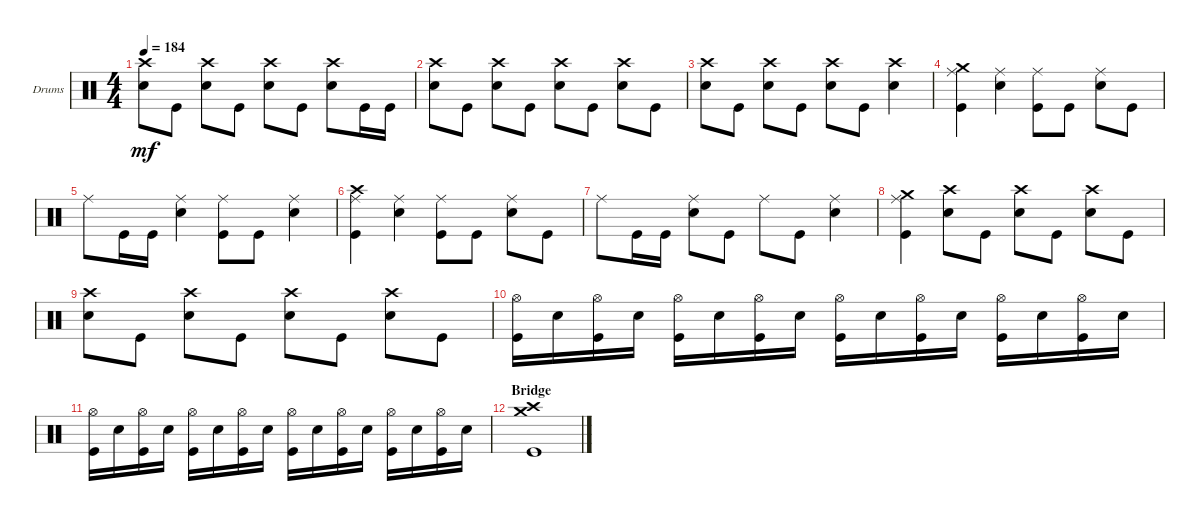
\defaultSystemsLayout 4
\bracketExtendMode groupsimilarinstruments
\firstSystemTrackNameOrientation horizontal
\otherSystemsTrackNameOrientation horizontal
\track ("Drums (Phoenix)" "Drums") {instrument percussion}
\staff {score}
\articulation defaults
\ts (4 4)
\tempo 184
\clef neutral
\ks c
("Snare (hit) 2" "Crash high (hit)").8{dy mf} "Kick (hit)".8 ("Snare (hit) 2" "Crash high (hit)").8 "Kick (hit)".8 ("Snare (hit) 2" "Crash high (hit)").8 "Kick (hit)".8 ("Snare (hit) 2" "Crash high (hit)").8 "Kick (hit)".16 "Kick (hit)".16 |
("Snare (hit) 2" "Crash high (hit)").8 "Kick (hit)".8 ("Snare (hit) 2" "Crash high (hit)").8 "Kick (hit)".8 ("Snare (hit) 2" "Crash high (hit)").8 "Kick (hit)".8 ("Snare (hit) 2" "Crash high (hit)").8 "Kick (hit)".8 |
("Snare (hit) 2" "Crash high (hit)").8 "Kick (hit)".8 ("Snare (hit) 2" "Crash high (hit)").8 "Kick (hit)".8 ("Snare (hit) 2" "Crash high (hit)").8 "Kick (hit)".8 ("Snare (hit) 2" "Crash high (hit)").4 |
("Kick (hit)" "Ride (middle)" "Crash medium (hit)").4 ("Snare (hit) 2" "Ride (middle)").4 ("Kick (hit)" "Ride (middle)").8 "Kick (hit)".8 ("Snare (hit) 2" "Ride (middle)").8 "Kick (hit)".8 |
"Ride (middle)".8 "Kick (hit)".16 "Kick (hit)".16 ("Snare (hit) 2" "Ride (middle)").4 ("Kick (hit)" "Ride (middle)").8 "Kick (hit)".8 ("Snare (hit) 2" "Ride (middle)").4 |
("Kick (hit)" "Ride (middle)" "Crash high (hit)").4 ("Snare (hit) 2" "Ride (middle)").4 ("Kick (hit)" "Ride (middle)").8 "Kick (hit)".8 ("Snare (hit) 2" "Ride (middle)").8 "Kick (hit)".8 |
"Ride (middle)".8 "Kick (hit)".16 "Kick (hit)".16 ("Snare (hit) 2" "Ride (middle)").8 "Kick (hit)".8 "Ride (middle)".8 "Kick (hit)".8 ("Snare (hit) 2" "Ride (middle)").4 |
("Kick (hit)" "Ride (middle)" "Crash medium (hit)").4 ("Snare (hit) 2" "Crash high (hit)").8 "Kick (hit)".8 ("Snare (hit) 2" "Crash high (hit)").8 "Kick (hit)".8 ("Snare (hit) 2" "Crash high (hit)").8 "Kick (hit)".8 |
("Snare (hit) 2" "Crash high (hit)").8 "Kick (hit)".8 ("Snare (hit) 2" "Crash high (hit)").8 "Kick (hit)".8 ("Snare (hit) 2" "Crash high (hit)").8 "Kick (hit)".8 ("Snare (hit) 2" "Crash high (hit)").8 "Kick (hit)".8 |
("Kick (hit)" "Hi-Hat (open)").16 "Snare (hit) 2".16 ("Kick (hit)" "Hi-Hat (open)").16 "Snare (hit) 2".16 ("Kick (hit)" "Hi-Hat (open)").16 "Snare (hit) 2".16 ("Kick (hit)" "Hi-Hat (open)").16 "Snare (hit) 2".16 ("Kick (hit)" "Hi-Hat (open)").16 "Snare (hit) 2".16 ("Kick (hit)" "Hi-Hat (open)").16 "Snare (hit) 2".16 ("Kick (hit)" "Hi-Hat (open)").16 "Snare (hit) 2".16 ("Kick (hit)" "Hi-Hat (open)").16 "Snare (hit) 2".16 |
("Kick (hit)" "Hi-Hat (open)").16 "Snare (hit) 2".16 ("Kick (hit)" "Hi-Hat (open)").16 "Snare (hit) 2".16 ("Kick (hit)" "Hi-Hat (open)").16 "Snare (hit) 2".16 ("Kick (hit)" "Hi-Hat (open)").16 "Snare (hit) 2".16 ("Kick (hit)" "Hi-Hat (open)").16 "Snare (hit) 2".16 ("Kick (hit)" "Hi-Hat (open)").16 "Snare (hit) 2".16 ("Kick (hit)" "Hi-Hat (open)").16 "Snare (hit) 2".16 ("Kick (hit)" "Hi-Hat (open)").16 "Snare (hit) 2".16 |
\section ("" "Bridge")
("Kick (hit)" "Crash medium (hit)" "Crash high (hit)").1
